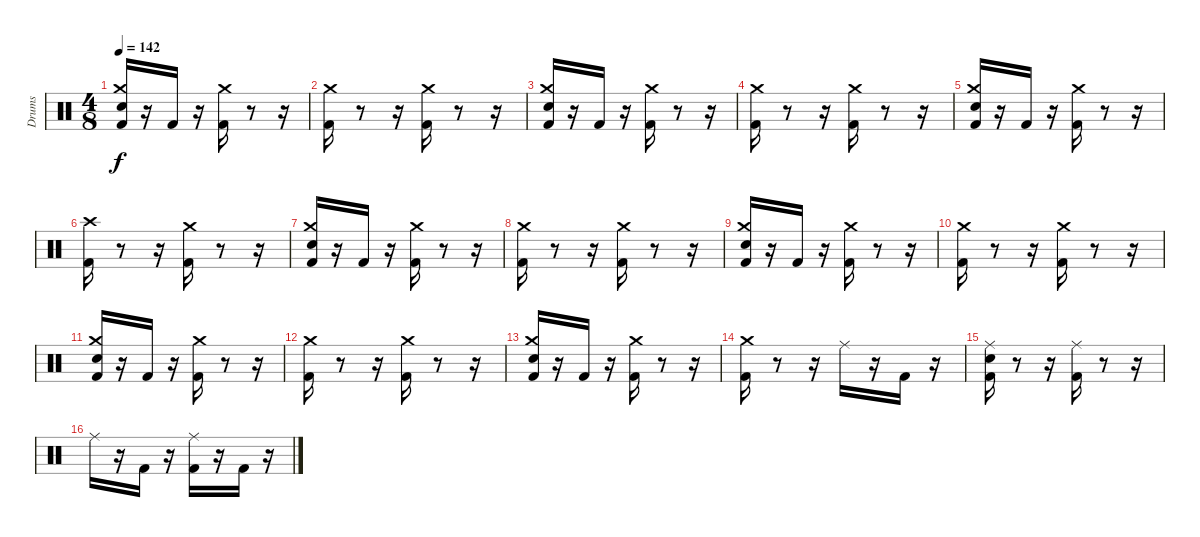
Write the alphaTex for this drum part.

\track ("Drums" "Drums") {instrument percussion}
\staff {score}
\articulation defaults
\ts (4 8)
\tempo 142
\clef neutral
\ks c
("Electric Snare (hit)" "Crash medium (hit)" "Kick (hit) 2").16{dy f} r.16 "Kick (hit) 2".16 r.16 ("Kick (hit) 2" "Crash medium (hit)").16 r.8 r.16 |
("Kick (hit) 2" "Crash medium (hit)").16 r.8 r.16 ("Kick (hit) 2" "Crash medium (hit)").16 r.8 r.16 |
("Electric Snare (hit)" "Crash medium (hit)" "Kick (hit) 2").16 r.16 "Kick (hit) 2".16 r.16 ("Kick (hit) 2" "Crash medium (hit)").16 r.8 r.16 |
("Kick (hit) 2" "Crash medium (hit)").16 r.8 r.16 ("Kick (hit) 2" "Crash medium (hit)").16 r.8 r.16 |
("Electric Snare (hit)" "Crash medium (hit)" "Kick (hit) 2").16 r.16 "Kick (hit) 2".16 r.16 ("Kick (hit) 2" "Crash medium (hit)").16 r.8 r.16 |
("Kick (hit) 2" "Crash high (hit)").16 r.8 r.16 ("Kick (hit) 2" "Crash medium (hit)").16 r.8 r.16 |
("Electric Snare (hit)" "Crash medium (hit)" "Kick (hit) 2").16 r.16 "Kick (hit) 2".16 r.16 ("Kick (hit) 2" "Crash medium (hit)").16 r.8 r.16 |
("Kick (hit) 2" "Crash medium (hit)").16 r.8 r.16 ("Kick (hit) 2" "Crash medium (hit)").16 r.8 r.16 |
("Electric Snare (hit)" "Crash medium (hit)" "Kick (hit) 2").16 r.16 "Kick (hit) 2".16 r.16 ("Kick (hit) 2" "Crash medium (hit)").16 r.8 r.16 |
("Kick (hit) 2" "Crash medium (hit)").16 r.8 r.16 ("Kick (hit) 2" "Crash medium (hit)").16 r.8 r.16 |
("Electric Snare (hit)" "Crash medium (hit)" "Kick (hit) 2").16 r.16 "Kick (hit) 2".16 r.16 ("Kick (hit) 2" "Crash medium (hit)").16 r.8 r.16 |
("Kick (hit) 2" "Crash medium (hit)").16 r.8 r.16 ("Kick (hit) 2" "Crash medium (hit)").16 r.8 r.16 |
("Electric Snare (hit)" "Crash medium (hit)" "Kick (hit) 2").16 r.16 "Kick (hit) 2".16 r.16 ("Kick (hit) 2" "Crash medium (hit)").16 r.8 r.16 |
("Kick (hit) 2" "Crash medium (hit)").16 r.8 r.16 "Ride (middle)".16 r.16 "Kick (hit) 2".16 r.16 |
("Electric Snare (hit)" "Ride (middle)" "Kick (hit) 2").16 r.8 r.16 ("Kick (hit) 2" "Ride (middle)").16 r.8 r.16 |
"Ride (middle)".16 r.16 "Kick (hit) 2".16 r.16 ("Ride (middle)" "Kick (hit) 2").16 r.16 "Kick (hit) 2".16 r.16
